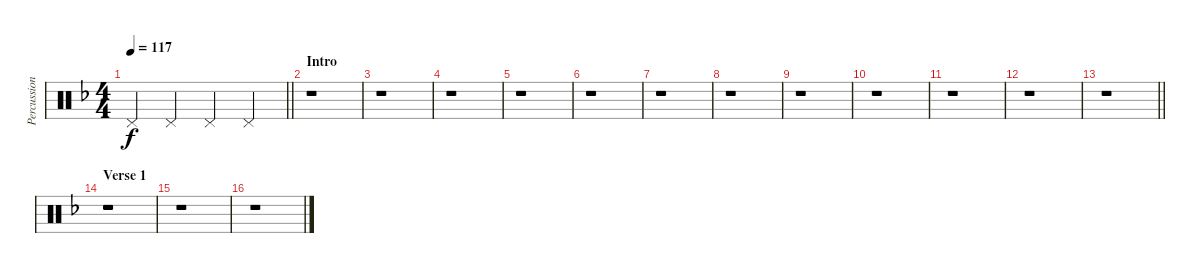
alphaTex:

\track ("Percussions" "Percussion") {instrument percussion}
\staff {score}
\articulation defaults
\ts (4 4)
\tempo 117
\clef neutral
\barLineRight lightlight
\ks f "Pedal Hi-Hat (hit)".4{dy f} "Pedal Hi-Hat (hit)".4 "Pedal Hi-Hat (hit)".4 "Pedal Hi-Hat (hit)".4
|
\section ("" "Intro")
r.1 |
r.1 |
r.1 |
r.1 |
r.1 |
r.1 |
r.1 |
r.1 |
r.1 |
r.1 |
r.1 |
\barLineRight lightlight
r.1 |
\section ("" "Verse 1")
r.1 |
r.1 |
r.1
